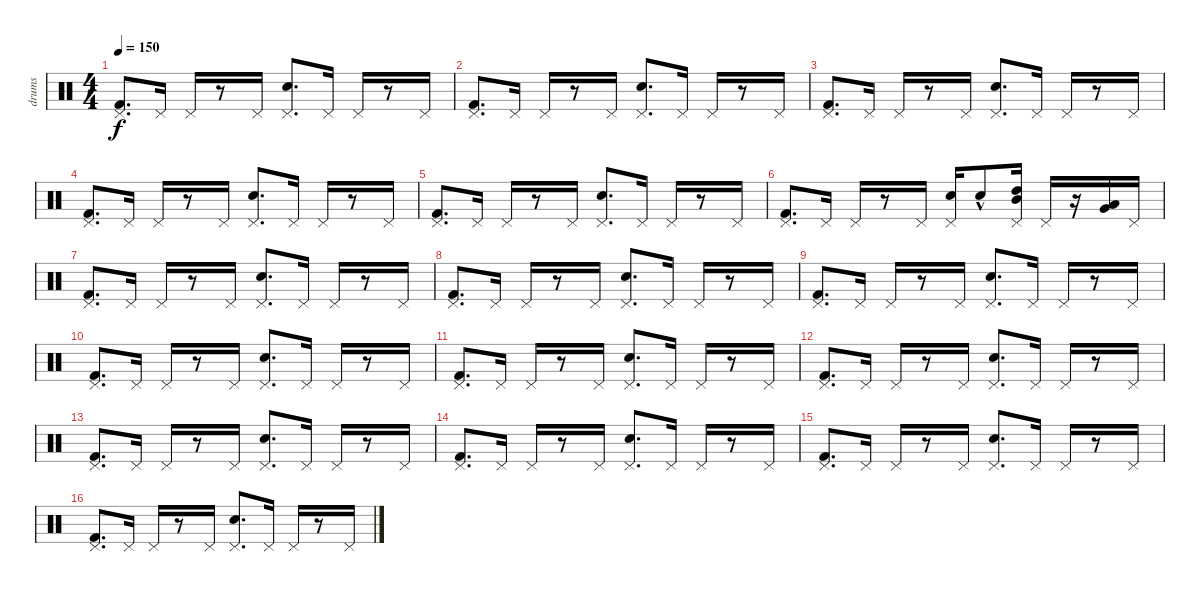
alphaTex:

\track ("drums" "drums") {instrument percussion}
\staff {score}
\articulation defaults
\ts (4 4)
\tempo 150
\clef neutral
\ks c
("Kick (hit) 2" "Pedal Hi-Hat (hit)").8{d dy f} "Pedal Hi-Hat (hit)".16 "Pedal Hi-Hat (hit)".16 r.8 "Pedal Hi-Hat (hit)".16 ("Snare (hit) 2" "Pedal Hi-Hat (hit)").8{d} "Pedal Hi-Hat (hit)".16 "Pedal Hi-Hat (hit)".16 r.8 "Pedal Hi-Hat (hit)".16 |
("Kick (hit) 2" "Pedal Hi-Hat (hit)").8{d} "Pedal Hi-Hat (hit)".16 "Pedal Hi-Hat (hit)".16 r.8 "Pedal Hi-Hat (hit)".16 ("Snare (hit) 2" "Pedal Hi-Hat (hit)").8{d} "Pedal Hi-Hat (hit)".16 "Pedal Hi-Hat (hit)".16 r.8 "Pedal Hi-Hat (hit)".16 |
("Kick (hit) 2" "Pedal Hi-Hat (hit)").8{d} "Pedal Hi-Hat (hit)".16 "Pedal Hi-Hat (hit)".16 r.8 "Pedal Hi-Hat (hit)".16 ("Snare (hit) 2" "Pedal Hi-Hat (hit)").8{d} "Pedal Hi-Hat (hit)".16 "Pedal Hi-Hat (hit)".16 r.8 "Pedal Hi-Hat (hit)".16 |
("Kick (hit) 2" "Pedal Hi-Hat (hit)").8{d} "Pedal Hi-Hat (hit)".16 "Pedal Hi-Hat (hit)".16 r.8 "Pedal Hi-Hat (hit)".16 ("Snare (hit) 2" "Pedal Hi-Hat (hit)").8{d} "Pedal Hi-Hat (hit)".16 "Pedal Hi-Hat (hit)".16 r.8 "Pedal Hi-Hat (hit)".16 |
("Kick (hit) 2" "Pedal Hi-Hat (hit)").8{d} "Pedal Hi-Hat (hit)".16 "Pedal Hi-Hat (hit)".16 r.8 "Pedal Hi-Hat (hit)".16 ("Snare (hit) 2" "Pedal Hi-Hat (hit)").8{d} "Pedal Hi-Hat (hit)".16 "Pedal Hi-Hat (hit)".16 r.8 "Pedal Hi-Hat (hit)".16 |
("Kick (hit) 2" "Pedal Hi-Hat (hit)").8{d} "Pedal Hi-Hat (hit)".16 "Pedal Hi-Hat (hit)".16 r.8 "Pedal Hi-Hat (hit)".16 ("Snare (hit) 2" "Pedal Hi-Hat (hit)").16 "Snare (hit) 2"{hac}.8 ("Pedal Hi-Hat (hit)" "High Tom (hit)" "Mid Tom (hit)").16 "Pedal Hi-Hat (hit)".16 r.16 ("Very Low Tom (hit)" "Low Tom (hit)").16 "Pedal Hi-Hat (hit)".16 |
("Kick (hit) 2" "Pedal Hi-Hat (hit)").8{d} "Pedal Hi-Hat (hit)".16 "Pedal Hi-Hat (hit)".16 r.8 "Pedal Hi-Hat (hit)".16 ("Snare (hit) 2" "Pedal Hi-Hat (hit)").8{d} "Pedal Hi-Hat (hit)".16 "Pedal Hi-Hat (hit)".16 r.8 "Pedal Hi-Hat (hit)".16 |
("Kick (hit) 2" "Pedal Hi-Hat (hit)").8{d} "Pedal Hi-Hat (hit)".16 "Pedal Hi-Hat (hit)".16 r.8 "Pedal Hi-Hat (hit)".16 ("Snare (hit) 2" "Pedal Hi-Hat (hit)").8{d} "Pedal Hi-Hat (hit)".16 "Pedal Hi-Hat (hit)".16 r.8 "Pedal Hi-Hat (hit)".16 |
("Kick (hit) 2" "Pedal Hi-Hat (hit)").8{d} "Pedal Hi-Hat (hit)".16 "Pedal Hi-Hat (hit)".16 r.8 "Pedal Hi-Hat (hit)".16 ("Snare (hit) 2" "Pedal Hi-Hat (hit)").8{d} "Pedal Hi-Hat (hit)".16 "Pedal Hi-Hat (hit)".16 r.8 "Pedal Hi-Hat (hit)".16 |
("Kick (hit) 2" "Pedal Hi-Hat (hit)").8{d} "Pedal Hi-Hat (hit)".16 "Pedal Hi-Hat (hit)".16 r.8 "Pedal Hi-Hat (hit)".16 ("Snare (hit) 2" "Pedal Hi-Hat (hit)").8{d} "Pedal Hi-Hat (hit)".16 "Pedal Hi-Hat (hit)".16 r.8 "Pedal Hi-Hat (hit)".16 |
("Kick (hit) 2" "Pedal Hi-Hat (hit)").8{d} "Pedal Hi-Hat (hit)".16 "Pedal Hi-Hat (hit)".16 r.8 "Pedal Hi-Hat (hit)".16 ("Snare (hit) 2" "Pedal Hi-Hat (hit)").8{d} "Pedal Hi-Hat (hit)".16 "Pedal Hi-Hat (hit)".16 r.8 "Pedal Hi-Hat (hit)".16 |
("Kick (hit) 2" "Pedal Hi-Hat (hit)").8{d} "Pedal Hi-Hat (hit)".16 "Pedal Hi-Hat (hit)".16 r.8 "Pedal Hi-Hat (hit)".16 ("Snare (hit) 2" "Pedal Hi-Hat (hit)").8{d} "Pedal Hi-Hat (hit)".16 "Pedal Hi-Hat (hit)".16 r.8 "Pedal Hi-Hat (hit)".16 |
("Kick (hit) 2" "Pedal Hi-Hat (hit)").8{d} "Pedal Hi-Hat (hit)".16 "Pedal Hi-Hat (hit)".16 r.8 "Pedal Hi-Hat (hit)".16 ("Snare (hit) 2" "Pedal Hi-Hat (hit)").8{d} "Pedal Hi-Hat (hit)".16 "Pedal Hi-Hat (hit)".16 r.8 "Pedal Hi-Hat (hit)".16 |
("Kick (hit) 2" "Pedal Hi-Hat (hit)").8{d} "Pedal Hi-Hat (hit)".16 "Pedal Hi-Hat (hit)".16 r.8 "Pedal Hi-Hat (hit)".16 ("Snare (hit) 2" "Pedal Hi-Hat (hit)").8{d} "Pedal Hi-Hat (hit)".16 "Pedal Hi-Hat (hit)".16 r.8 "Pedal Hi-Hat (hit)".16 |
("Kick (hit) 2" "Pedal Hi-Hat (hit)").8{d} "Pedal Hi-Hat (hit)".16 "Pedal Hi-Hat (hit)".16 r.8 "Pedal Hi-Hat (hit)".16 ("Snare (hit) 2" "Pedal Hi-Hat (hit)").8{d} "Pedal Hi-Hat (hit)".16 "Pedal Hi-Hat (hit)".16 r.8 "Pedal Hi-Hat (hit)".16 |
("Kick (hit) 2" "Pedal Hi-Hat (hit)").8{d} "Pedal Hi-Hat (hit)".16 "Pedal Hi-Hat (hit)".16 r.8 "Pedal Hi-Hat (hit)".16 ("Snare (hit) 2" "Pedal Hi-Hat (hit)").8{d} "Pedal Hi-Hat (hit)".16 "Pedal Hi-Hat (hit)".16 r.8 "Pedal Hi-Hat (hit)".16
